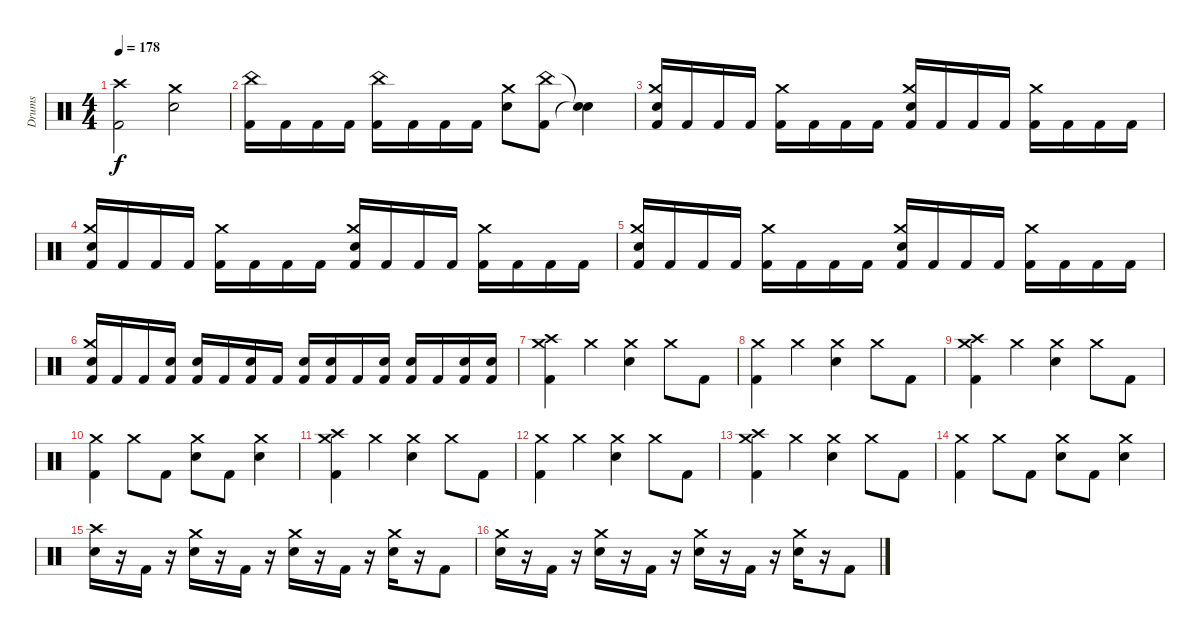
\track ("Drums" "Drums") {instrument percussion}
\staff {score}
\articulation defaults
\ts (4 4)
\tempo 178
\clef neutral
\ks c
("Crash high (hit)" "Kick (hit) 2").2{dy f} ("Crash medium (hit)" "Electric Snare (hit)").2 |
("China (hit)" "Kick (hit) 2").16 "Kick (hit) 2".16 "Kick (hit) 2".16 "Kick (hit) 2".16 ("China (hit)" "Kick (hit) 2").16 "Kick (hit) 2".16 "Kick (hit) 2".16 "Kick (hit) 2".16 ("Crash medium (hit)" "Electric Snare (hit)").8 ("China (hit)" "Kick (hit) 2").8 ("Snare (hit)"{t} "Snare (hit)"{t}).4 |
("Crash medium (hit)" "Electric Snare (hit)" "Kick (hit) 2").16 "Kick (hit) 2".16 "Kick (hit) 2".16 "Kick (hit) 2".16 ("Crash medium (hit)" "Kick (hit) 2").16 "Kick (hit) 2".16 "Kick (hit) 2".16 "Kick (hit) 2".16 ("Crash medium (hit)" "Electric Snare (hit)" "Kick (hit) 2").16 "Kick (hit) 2".16 "Kick (hit) 2".16 "Kick (hit) 2".16 ("Crash medium (hit)" "Kick (hit) 2").16 "Kick (hit) 2".16 "Kick (hit) 2".16 "Kick (hit) 2".16 |
("Crash medium (hit)" "Electric Snare (hit)" "Kick (hit) 2").16 "Kick (hit) 2".16 "Kick (hit) 2".16 "Kick (hit) 2".16 ("Crash medium (hit)" "Kick (hit) 2").16 "Kick (hit) 2".16 "Kick (hit) 2".16 "Kick (hit) 2".16 ("Crash medium (hit)" "Electric Snare (hit)" "Kick (hit) 2").16 "Kick (hit) 2".16 "Kick (hit) 2".16 "Kick (hit) 2".16 ("Crash medium (hit)" "Kick (hit) 2").16 "Kick (hit) 2".16 "Kick (hit) 2".16 "Kick (hit) 2".16 |
("Crash medium (hit)" "Electric Snare (hit)" "Kick (hit) 2").16 "Kick (hit) 2".16 "Kick (hit) 2".16 "Kick (hit) 2".16 ("Crash medium (hit)" "Kick (hit) 2").16 "Kick (hit) 2".16 "Kick (hit) 2".16 "Kick (hit) 2".16 ("Crash medium (hit)" "Electric Snare (hit)" "Kick (hit) 2").16 "Kick (hit) 2".16 "Kick (hit) 2".16 "Kick (hit) 2".16 ("Crash medium (hit)" "Kick (hit) 2").16 "Kick (hit) 2".16 "Kick (hit) 2".16 "Kick (hit) 2".16 |
("Crash medium (hit)" "Electric Snare (hit)" "Kick (hit) 2").16 "Kick (hit) 2".16 "Kick (hit) 2".16 ("Electric Snare (hit)" "Kick (hit) 2").16 ("Electric Snare (hit)" "Kick (hit) 2").16 "Kick (hit) 2".16 ("Electric Snare (hit)" "Kick (hit) 2").16 "Kick (hit) 2".16 ("Electric Snare (hit)" "Kick (hit) 2").16 ("Electric Snare (hit)" "Kick (hit) 2").16 "Kick (hit) 2".16 ("Electric Snare (hit)" "Kick (hit) 2").16 ("Electric Snare (hit)" "Kick (hit) 2").16 "Kick (hit) 2".16 ("Electric Snare (hit)" "Kick (hit) 2").16 ("Electric Snare (hit)" "Kick (hit) 2").16 |
("Crash high (hit)" "Crash medium (hit)" "Kick (hit) 2").4 "Crash medium (hit)".4 ("Crash medium (hit)" "Electric Snare (hit)").4 "Crash medium (hit)".8 "Kick (hit) 2".8 |
("Crash medium (hit)" "Kick (hit) 2").4 "Crash medium (hit)".4 ("Crash medium (hit)" "Electric Snare (hit)").4 "Crash medium (hit)".8 "Kick (hit) 2".8 |
("Crash high (hit)" "Crash medium (hit)" "Kick (hit) 2").4 "Crash medium (hit)".4 ("Crash medium (hit)" "Electric Snare (hit)").4 "Crash medium (hit)".8 "Kick (hit) 2".8 |
("Crash medium (hit)" "Kick (hit) 2").4 "Crash medium (hit)".8 "Kick (hit) 2".8 ("Crash medium (hit)" "Electric Snare (hit)").8 "Kick (hit) 2".8 ("Crash medium (hit)" "Electric Snare (hit)").4 |
("Crash high (hit)" "Crash medium (hit)" "Kick (hit) 2").4 "Crash medium (hit)".4 ("Crash medium (hit)" "Electric Snare (hit)").4 "Crash medium (hit)".8 "Kick (hit) 2".8 |
("Crash medium (hit)" "Kick (hit) 2").4 "Crash medium (hit)".4 ("Crash medium (hit)" "Electric Snare (hit)").4 "Crash medium (hit)".8 "Kick (hit) 2".8 |
("Crash high (hit)" "Crash medium (hit)" "Kick (hit) 2").4 "Crash medium (hit)".4 ("Crash medium (hit)" "Electric Snare (hit)").4 "Crash medium (hit)".8 "Kick (hit) 2".8 |
("Crash medium (hit)" "Kick (hit) 2").4 "Crash medium (hit)".8 "Kick (hit) 2".8 ("Crash medium (hit)" "Electric Snare (hit)").8 "Kick (hit) 2".8 ("Crash medium (hit)" "Electric Snare (hit)").4 |
("Crash high (hit)" "Electric Snare (hit)").16 r.16 "Kick (hit) 2".16 r.16 ("Crash medium (hit)" "Electric Snare (hit)").16 r.16 "Kick (hit) 2".16 r.16 ("Crash medium (hit)" "Electric Snare (hit)").16 r.16 "Kick (hit) 2".16 r.16 ("Crash medium (hit)" "Electric Snare (hit)").16 r.16 "Kick (hit) 2".8 |
("Crash medium (hit)" "Electric Snare (hit)").16 r.16 "Kick (hit) 2".16 r.16 ("Crash medium (hit)" "Electric Snare (hit)").16 r.16 "Kick (hit) 2".16 r.16 ("Crash medium (hit)" "Electric Snare (hit)").16 r.16 "Kick (hit) 2".16 r.16 ("Crash medium (hit)" "Electric Snare (hit)").16 r.16 "Kick (hit) 2".8
